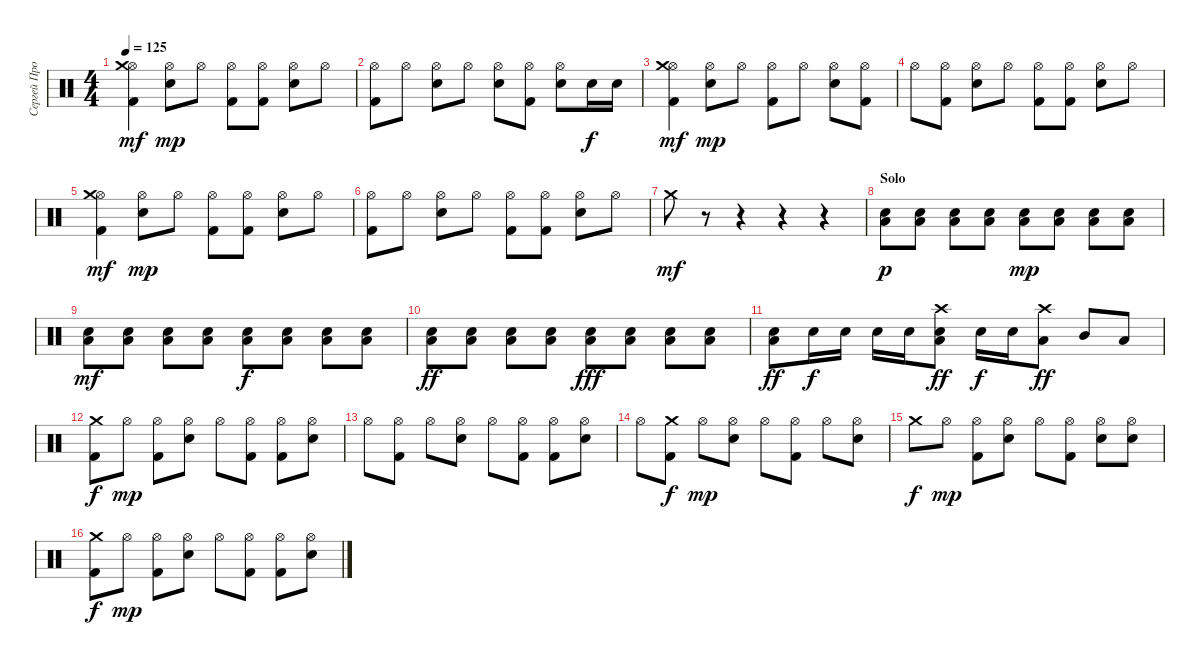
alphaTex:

\track ("Сергей Прокофьев (Percussion)" "Сергей Про") {instrument percussion}
\staff {score}
\articulation defaults
\ts (4 4)
\tempo 125
\clef neutral
\ks c
("Hi-Hat (open)" "Crash medium (hit)" "Kick (hit) 2").4{dy mf} ("Hi-Hat (open)" "Snare (hit) 2").8{dy mp} "Hi-Hat (open)".8 ("Hi-Hat (open)" "Kick (hit) 2").8 ("Hi-Hat (open)" "Kick (hit) 2").8 ("Hi-Hat (open)" "Snare (hit) 2").8 "Hi-Hat (open)".8 |
("Hi-Hat (open)" "Kick (hit) 2").8 "Hi-Hat (open)".8 ("Hi-Hat (open)" "Snare (hit) 2").8 "Hi-Hat (open)".8 ("Hi-Hat (open)" "Snare (hit) 2").8 ("Hi-Hat (open)" "Kick (hit) 2").8 ("Hi-Hat (open)" "Snare (hit) 2").8 "Snare (hit) 2".16{dy f} "Snare (hit) 2".16 |
("Hi-Hat (open)" "Crash medium (hit)" "Kick (hit) 2").4{dy mf} ("Hi-Hat (open)" "Snare (hit) 2").8{dy mp} "Hi-Hat (open)".8 ("Hi-Hat (open)" "Kick (hit) 2").8 "Hi-Hat (open)".8 ("Hi-Hat (open)" "Snare (hit) 2").8 ("Hi-Hat (open)" "Kick (hit) 2").8 |
"Hi-Hat (open)".8 ("Hi-Hat (open)" "Kick (hit) 2").8 ("Hi-Hat (open)" "Snare (hit) 2").8 "Hi-Hat (open)".8 ("Hi-Hat (open)" "Kick (hit) 2").8 ("Hi-Hat (open)" "Kick (hit) 2").8 ("Hi-Hat (open)" "Snare (hit) 2").8 "Hi-Hat (open)".8 |
("Hi-Hat (open)" "Crash medium (hit)" "Kick (hit) 2").4{dy mf} ("Hi-Hat (open)" "Snare (hit) 2").8{dy mp} "Hi-Hat (open)".8 ("Hi-Hat (open)" "Kick (hit) 2").8 ("Hi-Hat (open)" "Kick (hit) 2").8 ("Hi-Hat (open)" "Snare (hit) 2").8 "Hi-Hat (open)".8 |
("Hi-Hat (open)" "Kick (hit) 2").8 "Hi-Hat (open)".8 ("Hi-Hat (open)" "Snare (hit) 2").8 "Hi-Hat (open)".8 ("Hi-Hat (open)" "Kick (hit) 2").8 ("Hi-Hat (open)" "Kick (hit) 2").8 ("Hi-Hat (open)" "Snare (hit) 2").8 "Hi-Hat (open)".8 |
"Crash medium (hit)".8{dy mf} r.8 r.4 r.4 r.4 |
\section ("" "Solo")
("Snare (hit) 2" "Low Floor Tom (hit)").8{dy p} ("Snare (hit) 2" "Low Floor Tom (hit)").8 ("Snare (hit) 2" "Low Floor Tom (hit)").8 ("Snare (hit) 2" "Low Floor Tom (hit)").8 ("Snare (hit) 2" "Low Floor Tom (hit)").8{dy mp} ("Snare (hit) 2" "Low Floor Tom (hit)").8 ("Snare (hit) 2" "Low Floor Tom (hit)").8 ("Snare (hit) 2" "Low Floor Tom (hit)").8 |
("Snare (hit) 2" "Low Floor Tom (hit)").8{dy mf} ("Snare (hit) 2" "Low Floor Tom (hit)").8 ("Snare (hit) 2" "Low Floor Tom (hit)").8 ("Snare (hit) 2" "Low Floor Tom (hit)").8 ("Snare (hit) 2" "Low Floor Tom (hit)").8{dy f} ("Snare (hit) 2" "Low Floor Tom (hit)").8 ("Snare (hit) 2" "Low Floor Tom (hit)").8 ("Snare (hit) 2" "Low Floor Tom (hit)").8 |
("Snare (hit) 2" "Low Floor Tom (hit)").8{dy ff} ("Snare (hit) 2" "Low Floor Tom (hit)").8 ("Snare (hit) 2" "Low Floor Tom (hit)").8 ("Snare (hit) 2" "Low Floor Tom (hit)").8 ("Snare (hit) 2" "Low Floor Tom (hit)").8{dy fff} ("Snare (hit) 2" "Low Floor Tom (hit)").8 ("Snare (hit) 2" "Low Floor Tom (hit)").8 ("Snare (hit) 2" "Low Floor Tom (hit)").8 |
("Snare (hit) 2" "Low Floor Tom (hit)").8{dy ff} "Snare (hit) 2".16{dy f} "Snare (hit) 2".16 "Snare (hit) 2".16 "Snare (hit) 2".16 ("Crash high (hit)" "Snare (hit) 2" "Low Floor Tom (hit)").8{dy ff} "Snare (hit) 2".16{dy f} "Snare (hit) 2".16 ("Crash high (hit)" "Low Floor Tom (hit)").8{dy ff} "Mid Tom (hit)".8 "Low Floor Tom (hit)".8 |
("Crash medium (hit)" "Kick (hit) 2").8{dy f} "Hi-Hat (open)".8{dy mp} ("Hi-Hat (open)" "Kick (hit) 2").8 ("Hi-Hat (open)" "Snare (hit) 2").8 "Hi-Hat (open)".8 ("Hi-Hat (open)" "Kick (hit) 2").8 ("Hi-Hat (open)" "Kick (hit) 2").8 ("Hi-Hat (open)" "Snare (hit) 2").8 |
"Hi-Hat (open)".8 ("Hi-Hat (open)" "Kick (hit) 2").8 "Hi-Hat (open)".8 ("Hi-Hat (open)" "Snare (hit) 2").8 "Hi-Hat (open)".8 ("Hi-Hat (open)" "Kick (hit) 2").8 ("Hi-Hat (open)" "Kick (hit) 2").8 ("Hi-Hat (open)" "Snare (hit) 2").8 |
"Hi-Hat (open)".8 ("Crash medium (hit)" "Kick (hit) 2").8{dy f} "Hi-Hat (open)".8{dy mp} ("Hi-Hat (open)" "Snare (hit) 2").8 "Hi-Hat (open)".8 ("Hi-Hat (open)" "Kick (hit) 2").8 "Hi-Hat (open)".8 ("Hi-Hat (open)" "Snare (hit) 2").8 |
"Crash medium (hit)".8{dy f} "Hi-Hat (open)".8{dy mp} ("Hi-Hat (open)" "Kick (hit) 2").8 ("Hi-Hat (open)" "Snare (hit) 2").8 "Hi-Hat (open)".8 ("Hi-Hat (open)" "Kick (hit) 2").8 ("Hi-Hat (open)" "Snare (hit) 2").8 ("Hi-Hat (open)" "Snare (hit) 2").8 |
("Crash medium (hit)" "Kick (hit) 2").8{dy f} "Hi-Hat (open)".8{dy mp} ("Hi-Hat (open)" "Kick (hit) 2").8 ("Hi-Hat (open)" "Snare (hit) 2").8 "Hi-Hat (open)".8 ("Hi-Hat (open)" "Kick (hit) 2").8 ("Hi-Hat (open)" "Kick (hit) 2").8 ("Hi-Hat (open)" "Snare (hit) 2").8
